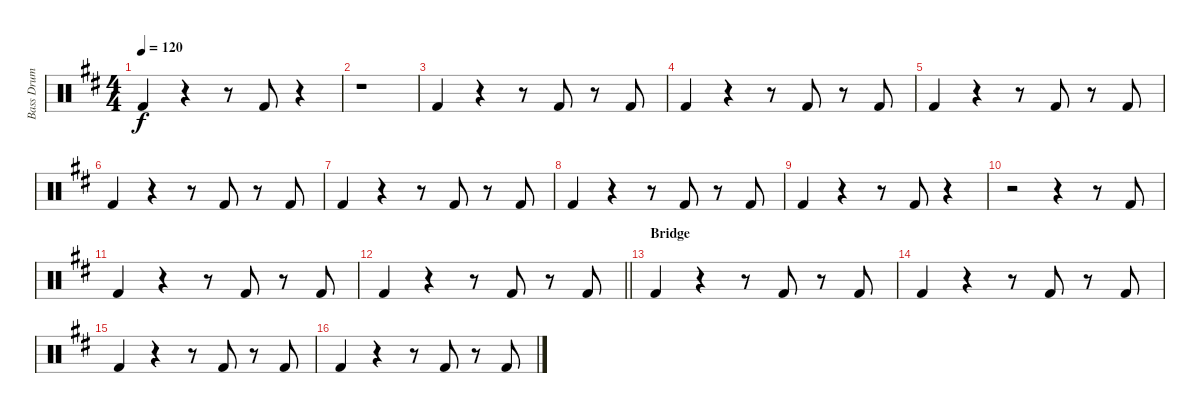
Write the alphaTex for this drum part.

\track ("Bass Drum" "Bass Drum") {instrument percussion}
\staff {score}
\articulation defaults
\ts (4 4)
\tempo 120
\clef neutral
\ks d "Kick (hit) 2".4{dy f}
r.4 r.8 "Kick (hit) 2".8 r.4 |
r.1 |
"Kick (hit) 2".4 r.4 r.8 "Kick (hit) 2".8 r.8 "Kick (hit) 2".8 |
"Kick (hit) 2".4 r.4 r.8 "Kick (hit) 2".8 r.8 "Kick (hit) 2".8 |
"Kick (hit) 2".4 r.4 r.8 "Kick (hit) 2".8 r.8 "Kick (hit) 2".8 |
"Kick (hit) 2".4 r.4 r.8 "Kick (hit) 2".8 r.8 "Kick (hit) 2".8 |
"Kick (hit) 2".4 r.4 r.8 "Kick (hit) 2".8 r.8 "Kick (hit) 2".8 |
"Kick (hit) 2".4 r.4 r.8 "Kick (hit) 2".8 r.8 "Kick (hit) 2".8 |
"Kick (hit) 2".4 r.4 r.8 "Kick (hit) 2".8 r.4 |
r.2 r.4 r.8 "Kick (hit) 2".8 |
"Kick (hit) 2".4 r.4 r.8 "Kick (hit) 2".8 r.8 "Kick (hit) 2".8 |
\barLineRight lightlight "Kick (hit) 2".4
r.4 r.8 "Kick (hit) 2".8 r.8 "Kick (hit) 2".8 |
\section ("" "Bridge")
"Kick (hit) 2".4 r.4 r.8 "Kick (hit) 2".8 r.8 "Kick (hit) 2".8 |
"Kick (hit) 2".4 r.4 r.8 "Kick (hit) 2".8 r.8 "Kick (hit) 2".8 |
"Kick (hit) 2".4 r.4 r.8 "Kick (hit) 2".8 r.8 "Kick (hit) 2".8 |
"Kick (hit) 2".4 r.4 r.8 "Kick (hit) 2".8 r.8 "Kick (hit) 2".8
